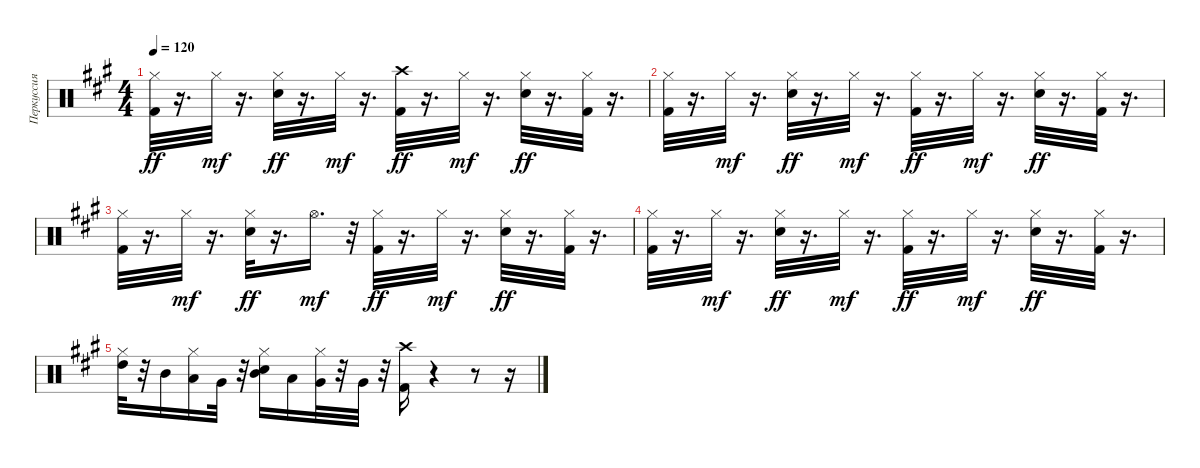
\track ("Перкуссия" "Перкуссия") {instrument percussion}
\staff {score}
\articulation defaults
\ts (4 4)
\tempo 120
\clef neutral
\ks f#minor
("Hi-Hat (closed)" "Kick (hit) 2").32{dy ff} r.16{d} "Hi-Hat (closed)".32{dy mf} r.16{d} ("Hi-Hat (closed)" "Snare (hit) 2").32{dy ff} r.16{d} "Hi-Hat (closed)".32{dy mf} r.16{d} ("Crash high (hit)" "Kick (hit) 2").32{dy ff} r.16{d} "Hi-Hat (closed)".32{dy mf} r.16{d} ("Hi-Hat (closed)" "Snare (hit) 2").32{dy ff} r.16{d} ("Hi-Hat (closed)" "Kick (hit) 2").32 r.16{d} |
("Hi-Hat (closed)" "Kick (hit) 2").32 r.16{d} "Hi-Hat (closed)".32{dy mf} r.16{d} ("Hi-Hat (closed)" "Snare (hit) 2").32{dy ff} r.16{d} "Hi-Hat (closed)".32{dy mf} r.16{d} ("Hi-Hat (closed)" "Kick (hit) 2").32{dy ff} r.16{d} "Hi-Hat (closed)".32{dy mf} r.16{d} ("Hi-Hat (closed)" "Snare (hit) 2").32{dy ff} r.16{d} ("Hi-Hat (closed)" "Kick (hit) 2").32 r.16{d} |
("Hi-Hat (closed)" "Kick (hit) 2").32 r.16{d} "Hi-Hat (closed)".32{dy mf} r.16{d} ("Hi-Hat (closed)" "Snare (hit) 2").32{dy ff} r.16{d} "Hi-Hat (open)".16{d dy mf} r.32 ("Hi-Hat (closed)" "Kick (hit) 2").32{dy ff} r.16{d} "Hi-Hat (closed)".32{dy mf} r.16{d} ("Hi-Hat (closed)" "Snare (hit) 2").32{dy ff} r.16{d} ("Hi-Hat (closed)" "Kick (hit) 2").32 r.16{d} |
("Hi-Hat (closed)" "Kick (hit) 2").32 r.16{d} "Hi-Hat (closed)".32{dy mf} r.16{d} ("Hi-Hat (closed)" "Snare (hit) 2").32{dy ff} r.16{d} "Hi-Hat (closed)".32{dy mf} r.16{d} ("Hi-Hat (closed)" "Kick (hit) 2").32{dy ff} r.16{d} "Hi-Hat (closed)".32{dy mf} r.16{d} ("Hi-Hat (closed)" "Snare (hit) 2").32{dy ff} r.16{d} ("Hi-Hat (closed)" "Kick (hit) 2").32 r.16{d} |
("Hi-Hat (closed)" "High Tom (hit)").32 r.32 "Mid Tom (hit)".16 ("Hi-Hat (closed)" "Low Tom (hit)").16 "Very Low Tom (hit)".32 r.32 ("Hi-Hat (closed)" "Mid Tom (hit)" "Snare (hit) 2").16 "Low Tom (hit)".16 ("Hi-Hat (closed)" "Very Low Tom (hit)").32 r.32 "Very Low Tom (hit)".32 r.32 ("Crash high (hit)" "Kick (hit) 2").16 r.4 r.8 r.16
